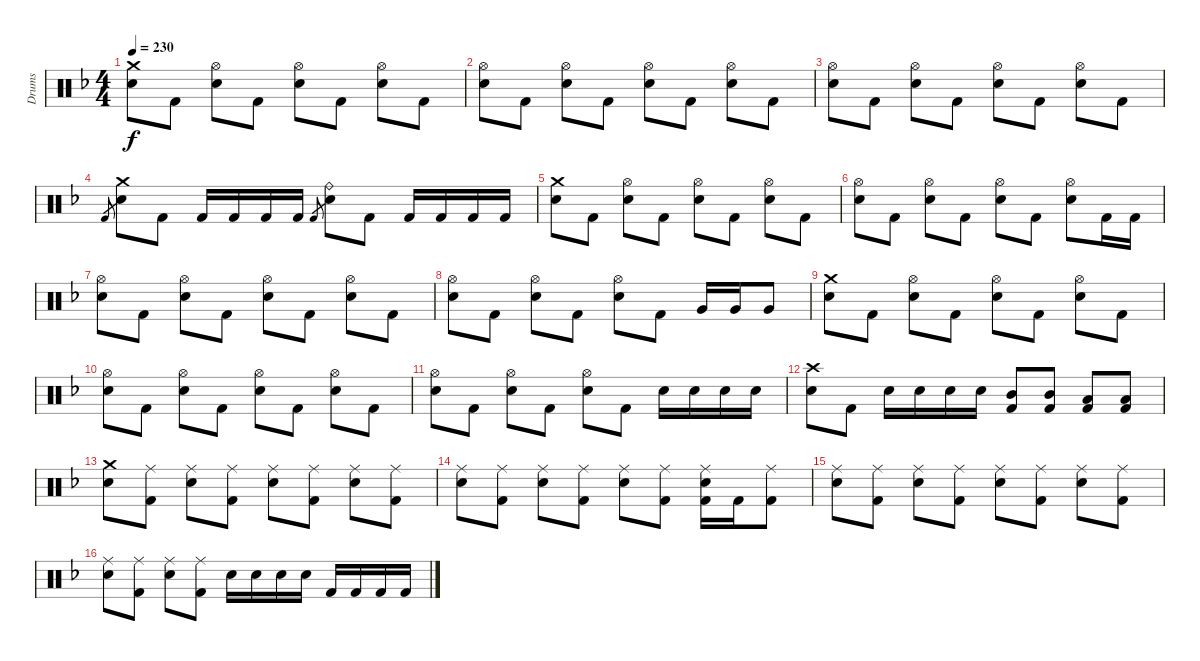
\track ("Drums" "Drums") {instrument percussion}
\staff {score}
\articulation defaults
\ts (4 4)
\tempo 230
\clef neutral
\ks f
("Crash medium (hit)" "Snare (hit) 2").8{dy f} "Kick (hit) 2".8 ("Hi-Hat (open)" "Snare (hit) 2").8 "Kick (hit) 2".8 ("Hi-Hat (open)" "Snare (hit) 2").8 "Kick (hit) 2".8 ("Hi-Hat (open)" "Snare (hit) 2").8 "Kick (hit) 2".8 |
("Hi-Hat (open)" "Snare (hit) 2").8 "Kick (hit) 2".8 ("Hi-Hat (open)" "Snare (hit) 2").8 "Kick (hit) 2".8 ("Hi-Hat (open)" "Snare (hit) 2").8 "Kick (hit) 2".8 ("Hi-Hat (open)" "Snare (hit) 2").8 "Kick (hit) 2".8 |
("Hi-Hat (open)" "Snare (hit) 2").8 "Kick (hit) 2".8 ("Hi-Hat (open)" "Snare (hit) 2").8 "Kick (hit) 2".8 ("Hi-Hat (open)" "Snare (hit) 2").8 "Kick (hit) 2".8 ("Hi-Hat (open)" "Snare (hit) 2").8 "Kick (hit) 2".8 |
"Kick (hit) 2".8{gr} ("Crash medium (hit)" "Snare (hit) 2").8 "Kick (hit) 2".8 "Kick (hit) 2".16 "Kick (hit) 2".16 "Kick (hit) 2".16 "Kick (hit) 2".16 "Kick (hit) 2".8{gr} ("Ride (bell)" "Snare (hit) 2").8 "Kick (hit) 2".8 "Kick (hit) 2".16 "Kick (hit) 2".16 "Kick (hit) 2".16 "Kick (hit) 2".16 |
("Crash medium (hit)" "Snare (hit) 2").8 "Kick (hit) 2".8 ("Hi-Hat (open)" "Snare (hit) 2").8 "Kick (hit) 2".8 ("Hi-Hat (open)" "Snare (hit) 2").8 "Kick (hit) 2".8 ("Hi-Hat (open)" "Snare (hit) 2").8 "Kick (hit) 2".8 |
("Hi-Hat (open)" "Snare (hit) 2").8 "Kick (hit) 2".8 ("Hi-Hat (open)" "Snare (hit) 2").8 "Kick (hit) 2".8 ("Hi-Hat (open)" "Snare (hit) 2").8 "Kick (hit) 2".8 ("Hi-Hat (open)" "Snare (hit) 2").8 "Kick (hit) 2".16 "Kick (hit) 2".16 |
("Hi-Hat (open)" "Snare (hit) 2").8 "Kick (hit) 2".8 ("Hi-Hat (open)" "Snare (hit) 2").8 "Kick (hit) 2".8 ("Hi-Hat (open)" "Snare (hit) 2").8 "Kick (hit) 2".8 ("Hi-Hat (open)" "Snare (hit) 2").8 "Kick (hit) 2".8 |
("Hi-Hat (open)" "Snare (hit) 2").8 "Kick (hit) 2".8 ("Hi-Hat (open)" "Snare (hit) 2").8 "Kick (hit) 2".8 ("Hi-Hat (open)" "Snare (hit) 2").8 "Kick (hit) 2".8 "Very Low Tom (hit)".16 "Very Low Tom (hit)".16 "Very Low Tom (hit)".8 |
("Crash medium (hit)" "Snare (hit) 2").8 "Kick (hit) 2".8 ("Hi-Hat (open)" "Snare (hit) 2").8 "Kick (hit) 2".8 ("Hi-Hat (open)" "Snare (hit) 2").8 "Kick (hit) 2".8 ("Hi-Hat (open)" "Snare (hit) 2").8 "Kick (hit) 2".8 |
("Hi-Hat (open)" "Snare (hit) 2").8 "Kick (hit) 2".8 ("Hi-Hat (open)" "Snare (hit) 2").8 "Kick (hit) 2".8 ("Hi-Hat (open)" "Snare (hit) 2").8 "Kick (hit) 2".8 ("Hi-Hat (open)" "Snare (hit) 2").8 "Kick (hit) 2".8 |
("Hi-Hat (open)" "Snare (hit) 2").8 "Kick (hit) 2".8 ("Hi-Hat (open)" "Snare (hit) 2").8 "Kick (hit) 2".8 ("Hi-Hat (open)" "Snare (hit) 2").8 "Kick (hit) 2".8 "Snare (hit) 2".16 "Snare (hit) 2".16 "Snare (hit) 2".16 "Snare (hit) 2".16 |
("Crash high (hit)" "Snare (hit) 2").8 "Kick (hit) 2".8 "Snare (hit) 2".16 "Snare (hit) 2".16 "Snare (hit) 2".16 "Snare (hit) 2".16 ("Mid Tom (hit)" "Kick (hit) 2").8 ("Mid Tom (hit)" "Kick (hit) 2").8 ("Low Tom (hit)" "Kick (hit) 2").8 ("Low Tom (hit)" "Kick (hit) 2").8 |
("Crash medium (hit)" "Snare (hit) 2").8 ("Ride (middle)" "Kick (hit) 2").8 ("Ride (middle)" "Snare (hit) 2").8 ("Ride (middle)" "Kick (hit) 2").8 ("Ride (middle)" "Snare (hit) 2").8 ("Ride (middle)" "Kick (hit) 2").8 ("Ride (middle)" "Snare (hit) 2").8 ("Ride (middle)" "Kick (hit) 2").8 |
("Ride (middle)" "Snare (hit) 2").8 ("Ride (middle)" "Kick (hit) 2").8 ("Ride (middle)" "Snare (hit) 2").8 ("Ride (middle)" "Kick (hit) 2").8 ("Ride (middle)" "Snare (hit) 2").8 ("Ride (middle)" "Kick (hit) 2").8 ("Ride (middle)" "Snare (hit) 2" "Kick (hit) 2").16 "Kick (hit) 2".16 ("Ride (middle)" "Kick (hit) 2").8 |
("Ride (middle)" "Snare (hit) 2").8 ("Ride (middle)" "Kick (hit) 2").8 ("Ride (middle)" "Snare (hit) 2").8 ("Ride (middle)" "Kick (hit) 2").8 ("Ride (middle)" "Snare (hit) 2").8 ("Ride (middle)" "Kick (hit) 2").8 ("Ride (middle)" "Snare (hit) 2").8 ("Ride (middle)" "Kick (hit) 2").8 |
("Ride (middle)" "Snare (hit) 2").8 ("Ride (middle)" "Kick (hit) 2").8 ("Ride (middle)" "Snare (hit) 2").8 ("Ride (middle)" "Kick (hit) 2").8 "Snare (hit) 2".16 "Snare (hit) 2".16 "Snare (hit) 2".16 "Snare (hit) 2".16 "Kick (hit) 2".16 "Kick (hit) 2".16 "Kick (hit) 2".16 "Kick (hit) 2".16
